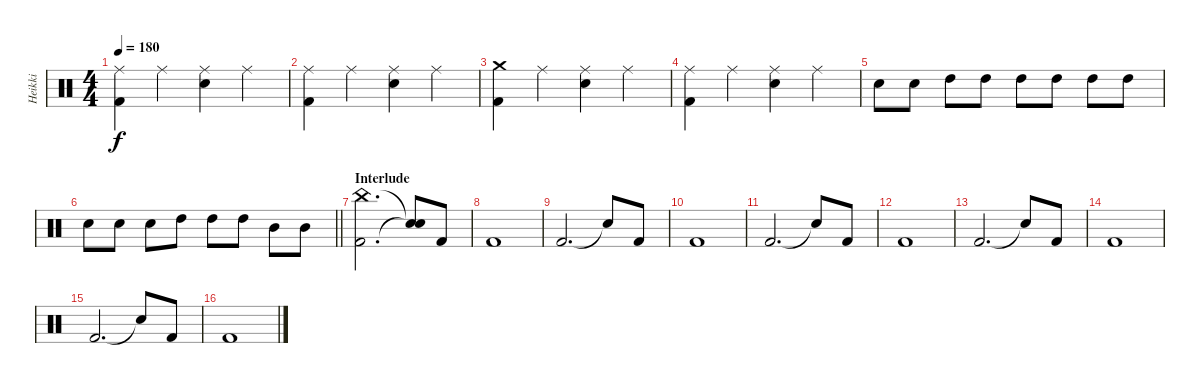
\track ("Heikki" "Heikki") {instrument percussion}
\staff {score}
\articulation defaults
\ts (4 4)
\tempo 180
\clef neutral
\ks c
("Ride (middle)" "Kick (hit) 2").4{dy f} "Ride (middle)".4 ("Ride (middle)" "Electric Snare (hit)").4 "Ride (middle)".4 |
("Ride (middle)" "Kick (hit) 2").4 "Ride (middle)".4 ("Ride (middle)" "Electric Snare (hit)").4 "Ride (middle)".4 |
("Crash medium (hit)" "Kick (hit) 2").4 "Ride (middle)".4 ("Ride (middle)" "Electric Snare (hit)").4 "Ride (middle)".4 |
("Ride (middle)" "Kick (hit) 2").4 "Ride (middle)".4 ("Ride (middle)" "Electric Snare (hit)").4 "Ride (middle)".4 |
"Electric Snare (hit)".8 "Electric Snare (hit)".8 "High Tom (hit)".8 "High Tom (hit)".8 "High Tom (hit)".8 "High Tom (hit)".8 "High Tom (hit)".8 "High Tom (hit)".8 |
\barLineRight lightlight "Electric Snare (hit)".8 "Electric Snare (hit)".8 "Electric Snare (hit)".8 "High Tom (hit)".8 "High Tom (hit)".8 "High Tom (hit)".8 "Mid Tom (hit)".8 "Mid Tom (hit)".8
|
\section ("" "Interlude")
("China (hit)" "Kick (hit) 2").2{d} ("Snare (hit)"{t} "Snare (hit)"{t}).8 "Kick (hit) 2".8 |
"Kick (hit) 2".1 |
"Kick (hit) 2".2{d} "Snare (hit)"{t}.8 "Kick (hit) 2".8 |
"Kick (hit) 2".1 |
"Kick (hit) 2".2{d} "Snare (hit)"{t}.8 "Kick (hit) 2".8 |
"Kick (hit) 2".1 |
"Kick (hit) 2".2{d} "Snare (hit)"{t}.8 "Kick (hit) 2".8 |
"Kick (hit) 2".1 |
"Kick (hit) 2".2{d} "Snare (hit)"{t}.8 "Kick (hit) 2".8 |
"Kick (hit) 2".1
